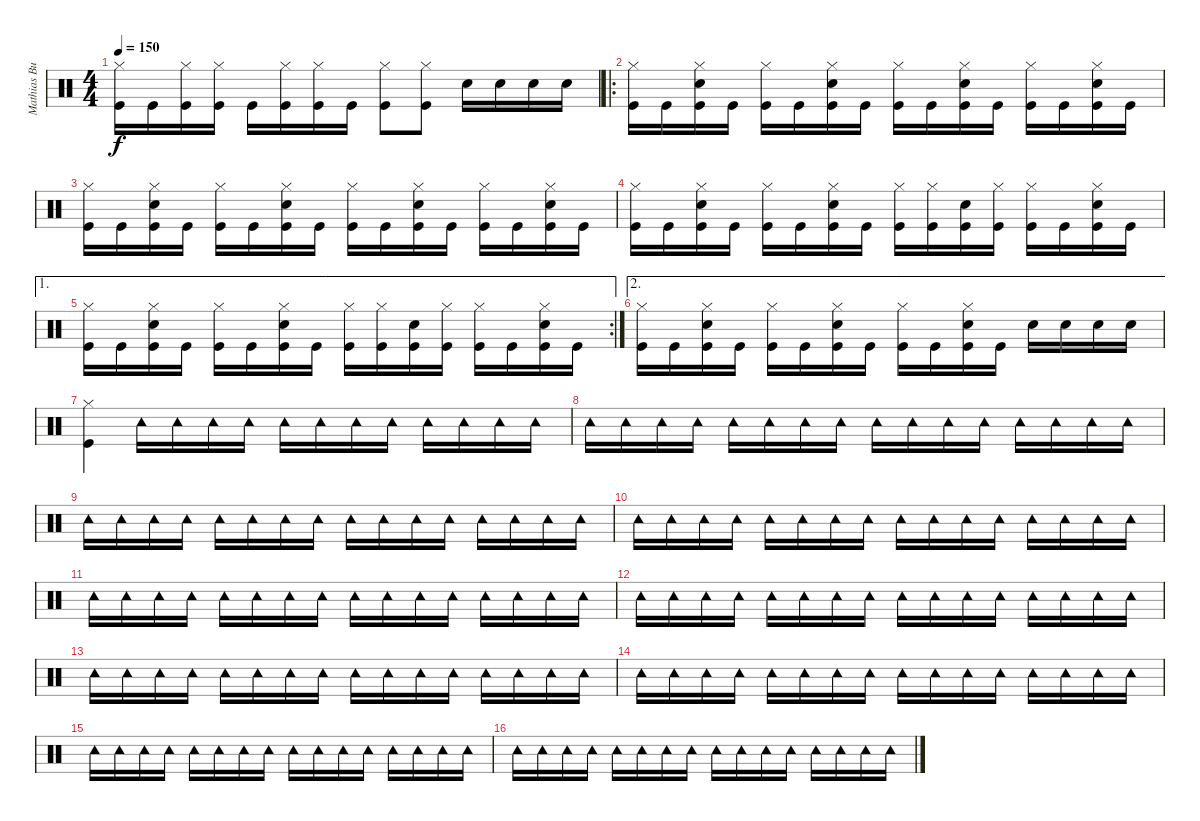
\track ("Mathias Burchardt - batterie" "Mathias Bu") {instrument percussion}
\staff {score}
\articulation defaults
\ts (4 4)
\tempo 150
\clef neutral
\ks c
("Hi-Hat (closed)" "Kick (hit)").16{dy f} "Kick (hit)".16 ("Hi-Hat (closed)" "Kick (hit)").16 ("Hi-Hat (closed)" "Kick (hit)").16 "Kick (hit)".16 ("Hi-Hat (closed)" "Kick (hit)").16 ("Hi-Hat (closed)" "Kick (hit)").16 "Kick (hit)".16 ("Hi-Hat (closed)" "Kick (hit)").8 ("Hi-Hat (closed)" "Kick (hit)").8 "Snare (hit) 2".16 "Snare (hit) 2".16 "Snare (hit) 2".16 "Snare (hit) 2".16 |
\ro
("Hi-Hat (closed)" "Kick (hit)").16 "Kick (hit)".16 ("Hi-Hat (closed)" "Snare (hit) 2" "Kick (hit)").16 "Kick (hit)".16 ("Hi-Hat (closed)" "Kick (hit)").16 "Kick (hit)".16 ("Hi-Hat (closed)" "Snare (hit) 2" "Kick (hit)").16 "Kick (hit)".16 ("Hi-Hat (closed)" "Kick (hit)").16 "Kick (hit)".16 ("Hi-Hat (closed)" "Snare (hit) 2" "Kick (hit)").16 "Kick (hit)".16 ("Hi-Hat (closed)" "Kick (hit)").16 "Kick (hit)".16 ("Hi-Hat (closed)" "Snare (hit) 2" "Kick (hit)").16 "Kick (hit)".16 |
("Hi-Hat (closed)" "Kick (hit)").16 "Kick (hit)".16 ("Hi-Hat (closed)" "Snare (hit) 2" "Kick (hit)").16 "Kick (hit)".16 ("Hi-Hat (closed)" "Kick (hit)").16 "Kick (hit)".16 ("Hi-Hat (closed)" "Snare (hit) 2" "Kick (hit)").16 "Kick (hit)".16 ("Hi-Hat (closed)" "Kick (hit)").16 "Kick (hit)".16 ("Hi-Hat (closed)" "Snare (hit) 2" "Kick (hit)").16 "Kick (hit)".16 ("Hi-Hat (closed)" "Kick (hit)").16 "Kick (hit)".16 ("Hi-Hat (closed)" "Snare (hit) 2" "Kick (hit)").16 "Kick (hit)".16 |
("Hi-Hat (closed)" "Kick (hit)").16 "Kick (hit)".16 ("Hi-Hat (closed)" "Snare (hit) 2" "Kick (hit)").16 "Kick (hit)".16 ("Hi-Hat (closed)" "Kick (hit)").16 "Kick (hit)".16 ("Hi-Hat (closed)" "Snare (hit) 2" "Kick (hit)").16 "Kick (hit)".16 ("Hi-Hat (closed)" "Kick (hit)").16 ("Hi-Hat (closed)" "Kick (hit)").16 ("Snare (hit) 2" "Kick (hit)").16 ("Hi-Hat (closed)" "Kick (hit)").16 ("Hi-Hat (closed)" "Kick (hit)").16 "Kick (hit)".16 ("Hi-Hat (closed)" "Snare (hit) 2" "Kick (hit)").16 "Kick (hit)".16 |
\ae 1
\rc 2
("Hi-Hat (closed)" "Kick (hit)").16 "Kick (hit)".16 ("Hi-Hat (closed)" "Snare (hit) 2" "Kick (hit)").16 "Kick (hit)".16 ("Hi-Hat (closed)" "Kick (hit)").16 "Kick (hit)".16 ("Hi-Hat (closed)" "Snare (hit) 2" "Kick (hit)").16 "Kick (hit)".16 ("Hi-Hat (closed)" "Kick (hit)").16 ("Hi-Hat (closed)" "Kick (hit)").16 ("Snare (hit) 2" "Kick (hit)").16 ("Hi-Hat (closed)" "Kick (hit)").16 ("Hi-Hat (closed)" "Kick (hit)").16 "Kick (hit)".16 ("Hi-Hat (closed)" "Snare (hit) 2" "Kick (hit)").16 "Kick (hit)".16 |
\ae 2
("Hi-Hat (closed)" "Kick (hit)").16 "Kick (hit)".16 ("Hi-Hat (closed)" "Snare (hit) 2" "Kick (hit)").16 "Kick (hit)".16 ("Hi-Hat (closed)" "Kick (hit)").16 "Kick (hit)".16 ("Hi-Hat (closed)" "Snare (hit) 2" "Kick (hit)").16 "Kick (hit)".16 ("Hi-Hat (closed)" "Kick (hit)").16 "Kick (hit)".16 ("Hi-Hat (closed)" "Snare (hit) 2" "Kick (hit)").16 "Kick (hit)".16 "Snare (hit) 2".16 "Snare (hit) 2".16 "Snare (hit) 2".16 "Snare (hit) 2".16 |
("Hi-Hat (closed)" "Kick (hit)").4 "Tambourine (hit)".16 "Tambourine (hit)".16 "Tambourine (hit)".16 "Tambourine (hit)".16 "Tambourine (hit)".16 "Tambourine (hit)".16 "Tambourine (hit)".16 "Tambourine (hit)".16 "Tambourine (hit)".16 "Tambourine (hit)".16 "Tambourine (hit)".16 "Tambourine (hit)".16 |
"Tambourine (hit)".16 "Tambourine (hit)".16 "Tambourine (hit)".16 "Tambourine (hit)".16 "Tambourine (hit)".16 "Tambourine (hit)".16 "Tambourine (hit)".16 "Tambourine (hit)".16 "Tambourine (hit)".16 "Tambourine (hit)".16 "Tambourine (hit)".16 "Tambourine (hit)".16 "Tambourine (hit)".16 "Tambourine (hit)".16 "Tambourine (hit)".16 "Tambourine (hit)".16 |
"Tambourine (hit)".16 "Tambourine (hit)".16 "Tambourine (hit)".16 "Tambourine (hit)".16 "Tambourine (hit)".16 "Tambourine (hit)".16 "Tambourine (hit)".16 "Tambourine (hit)".16 "Tambourine (hit)".16 "Tambourine (hit)".16 "Tambourine (hit)".16 "Tambourine (hit)".16 "Tambourine (hit)".16 "Tambourine (hit)".16 "Tambourine (hit)".16 "Tambourine (hit)".16 |
"Tambourine (hit)".16 "Tambourine (hit)".16 "Tambourine (hit)".16 "Tambourine (hit)".16 "Tambourine (hit)".16 "Tambourine (hit)".16 "Tambourine (hit)".16 "Tambourine (hit)".16 "Tambourine (hit)".16 "Tambourine (hit)".16 "Tambourine (hit)".16 "Tambourine (hit)".16 "Tambourine (hit)".16 "Tambourine (hit)".16 "Tambourine (hit)".16 "Tambourine (hit)".16 |
"Tambourine (hit)".16 "Tambourine (hit)".16 "Tambourine (hit)".16 "Tambourine (hit)".16 "Tambourine (hit)".16 "Tambourine (hit)".16 "Tambourine (hit)".16 "Tambourine (hit)".16 "Tambourine (hit)".16 "Tambourine (hit)".16 "Tambourine (hit)".16 "Tambourine (hit)".16 "Tambourine (hit)".16 "Tambourine (hit)".16 "Tambourine (hit)".16 "Tambourine (hit)".16 |
"Tambourine (hit)".16 "Tambourine (hit)".16 "Tambourine (hit)".16 "Tambourine (hit)".16 "Tambourine (hit)".16 "Tambourine (hit)".16 "Tambourine (hit)".16 "Tambourine (hit)".16 "Tambourine (hit)".16 "Tambourine (hit)".16 "Tambourine (hit)".16 "Tambourine (hit)".16 "Tambourine (hit)".16 "Tambourine (hit)".16 "Tambourine (hit)".16 "Tambourine (hit)".16 |
"Tambourine (hit)".16 "Tambourine (hit)".16 "Tambourine (hit)".16 "Tambourine (hit)".16 "Tambourine (hit)".16 "Tambourine (hit)".16 "Tambourine (hit)".16 "Tambourine (hit)".16 "Tambourine (hit)".16 "Tambourine (hit)".16 "Tambourine (hit)".16 "Tambourine (hit)".16 "Tambourine (hit)".16 "Tambourine (hit)".16 "Tambourine (hit)".16 "Tambourine (hit)".16 |
"Tambourine (hit)".16 "Tambourine (hit)".16 "Tambourine (hit)".16 "Tambourine (hit)".16 "Tambourine (hit)".16 "Tambourine (hit)".16 "Tambourine (hit)".16 "Tambourine (hit)".16 "Tambourine (hit)".16 "Tambourine (hit)".16 "Tambourine (hit)".16 "Tambourine (hit)".16 "Tambourine (hit)".16 "Tambourine (hit)".16 "Tambourine (hit)".16 "Tambourine (hit)".16 |
"Tambourine (hit)".16 "Tambourine (hit)".16 "Tambourine (hit)".16 "Tambourine (hit)".16 "Tambourine (hit)".16 "Tambourine (hit)".16 "Tambourine (hit)".16 "Tambourine (hit)".16 "Tambourine (hit)".16 "Tambourine (hit)".16 "Tambourine (hit)".16 "Tambourine (hit)".16 "Tambourine (hit)".16 "Tambourine (hit)".16 "Tambourine (hit)".16 "Tambourine (hit)".16 |
"Tambourine (hit)".16 "Tambourine (hit)".16 "Tambourine (hit)".16 "Tambourine (hit)".16 "Tambourine (hit)".16 "Tambourine (hit)".16 "Tambourine (hit)".16 "Tambourine (hit)".16 "Tambourine (hit)".16 "Tambourine (hit)".16 "Tambourine (hit)".16 "Tambourine (hit)".16 "Tambourine (hit)".16 "Tambourine (hit)".16 "Tambourine (hit)".16 "Tambourine (hit)".16
